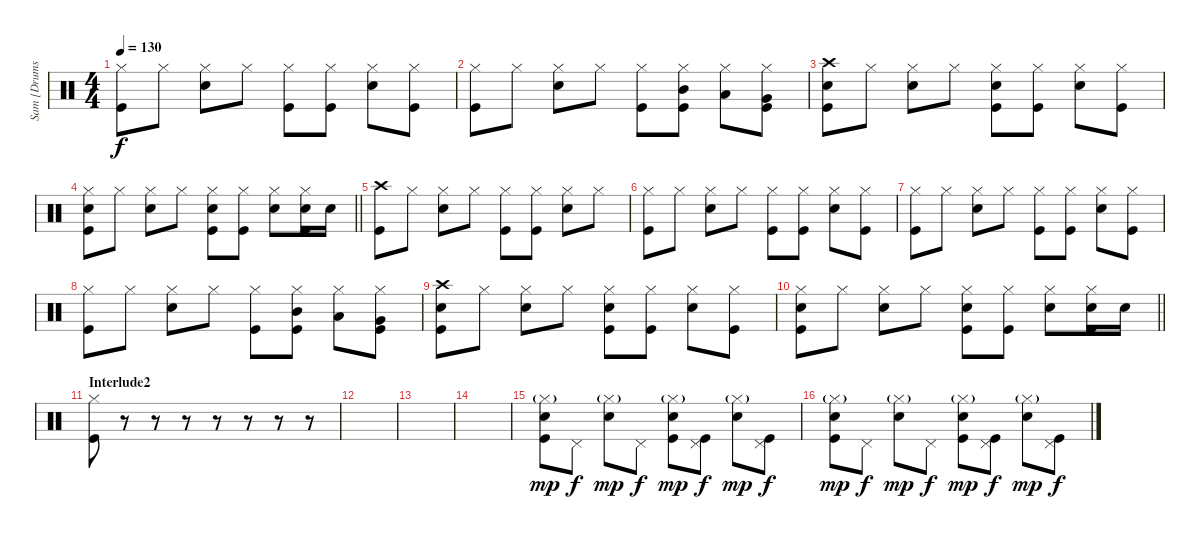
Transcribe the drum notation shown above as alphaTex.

\track ("Sam [Drums]" "Sam [Drums") {instrument percussion}
\staff {score}
\articulation defaults
\ts (4 4)
\tempo 130
\clef neutral
\ks c
("Hi-Hat (closed)" "Kick (hit)").8{dy f} "Hi-Hat (closed)".8 ("Hi-Hat (closed)" "Snare (hit) 2").8 "Hi-Hat (closed)".8 ("Hi-Hat (closed)" "Kick (hit)").8 ("Hi-Hat (closed)" "Kick (hit)").8 ("Hi-Hat (closed)" "Snare (hit) 2").8 ("Hi-Hat (closed)" "Kick (hit)").8 |
("Hi-Hat (closed)" "Kick (hit)").8 "Hi-Hat (closed)".8 ("Hi-Hat (closed)" "Snare (hit) 2").8 "Hi-Hat (closed)".8 ("Hi-Hat (closed)" "Kick (hit)").8 ("Hi-Hat (closed)" "Mid Tom (hit)" "Kick (hit)").8 ("Hi-Hat (closed)" "Low Tom (hit)").8 ("Hi-Hat (closed)" "Very Low Tom (hit)" "Kick (hit)").8 |
("Crash high (hit)" "Snare (hit) 2" "Kick (hit)").8 "Hi-Hat (closed)".8 ("Hi-Hat (closed)" "Snare (hit) 2").8 "Hi-Hat (closed)".8 ("Hi-Hat (closed)" "Snare (hit) 2" "Kick (hit)").8 ("Hi-Hat (closed)" "Kick (hit)").8 ("Hi-Hat (closed)" "Snare (hit) 2").8 ("Hi-Hat (closed)" "Kick (hit)").8 |
\barLineRight lightlight
("Hi-Hat (closed)" "Snare (hit) 2" "Kick (hit)").8 "Hi-Hat (closed)".8 ("Hi-Hat (closed)" "Snare (hit) 2").8 "Hi-Hat (closed)".8 ("Hi-Hat (closed)" "Snare (hit) 2" "Kick (hit)").8 ("Hi-Hat (closed)" "Kick (hit)").8 ("Hi-Hat (closed)" "Snare (hit) 2").8 ("Hi-Hat (closed)" "Snare (hit) 2" "Kick (hit)").16 "Snare (hit) 2".16 |
("Crash high (hit)" "Kick (hit)").8 "Hi-Hat (closed)".8 ("Hi-Hat (closed)" "Snare (hit) 2").8 "Hi-Hat (closed)".8 ("Hi-Hat (closed)" "Kick (hit)").8 ("Hi-Hat (closed)" "Kick (hit)").8 ("Hi-Hat (closed)" "Snare (hit) 2").8 "Hi-Hat (closed)".8 |
("Hi-Hat (closed)" "Kick (hit)").8 "Hi-Hat (closed)".8 ("Hi-Hat (closed)" "Snare (hit) 2").8 "Hi-Hat (closed)".8 ("Hi-Hat (closed)" "Kick (hit)").8 ("Hi-Hat (closed)" "Kick (hit)").8 ("Hi-Hat (closed)" "Snare (hit) 2").8 ("Hi-Hat (closed)" "Kick (hit)").8 |
("Hi-Hat (closed)" "Kick (hit)").8 "Hi-Hat (closed)".8 ("Hi-Hat (closed)" "Snare (hit) 2").8 "Hi-Hat (closed)".8 ("Hi-Hat (closed)" "Kick (hit)").8 ("Hi-Hat (closed)" "Kick (hit)").8 ("Hi-Hat (closed)" "Snare (hit) 2").8 ("Hi-Hat (closed)" "Kick (hit)").8 |
("Hi-Hat (closed)" "Kick (hit)").8 "Hi-Hat (closed)".8 ("Hi-Hat (closed)" "Snare (hit) 2").8 "Hi-Hat (closed)".8 ("Hi-Hat (closed)" "Kick (hit)").8 ("Hi-Hat (closed)" "Mid Tom (hit)" "Kick (hit)").8 ("Hi-Hat (closed)" "Low Tom (hit)").8 ("Hi-Hat (closed)" "Very Low Tom (hit)" "Kick (hit)").8 |
("Crash high (hit)" "Snare (hit) 2" "Kick (hit)").8 "Hi-Hat (closed)".8 ("Hi-Hat (closed)" "Snare (hit) 2").8 "Hi-Hat (closed)".8 ("Hi-Hat (closed)" "Snare (hit) 2" "Kick (hit)").8 ("Hi-Hat (closed)" "Kick (hit)").8 ("Hi-Hat (closed)" "Snare (hit) 2").8 ("Hi-Hat (closed)" "Kick (hit)").8 |
\barLineRight lightlight
("Hi-Hat (closed)" "Snare (hit) 2" "Kick (hit)").8 "Hi-Hat (closed)".8 ("Hi-Hat (closed)" "Snare (hit) 2").8 "Hi-Hat (closed)".8 ("Hi-Hat (closed)" "Snare (hit) 2" "Kick (hit)").8 ("Hi-Hat (closed)" "Kick (hit)").8 ("Hi-Hat (closed)" "Snare (hit) 2").8 ("Hi-Hat (closed)" "Snare (hit) 2" "Kick (hit)").16 "Snare (hit) 2".16 |
\section ("" "Interlude2")
("Hi-Hat (closed)" "Kick (hit)").8 r.8 r.8 r.8 r.8 r.8 r.8 r.8 |
|
|
|
("Hi-Hat (closed)"{g} "Snare (hit) 2" "Kick (hit)").8{dy mp} "Pedal Hi-Hat (hit)".8{dy f} ("Hi-Hat (closed)"{g} "Snare (hit) 2").8{dy mp} "Pedal Hi-Hat (hit)".8{dy f} ("Hi-Hat (closed)"{g} "Snare (hit) 2" "Kick (hit)").8{dy mp} ("Pedal Hi-Hat (hit)" "Kick (hit)").8{dy f} ("Hi-Hat (closed)"{g} "Snare (hit) 2").8{dy mp} ("Pedal Hi-Hat (hit)" "Kick (hit)").8{dy f} |
("Hi-Hat (closed)"{g} "Snare (hit) 2" "Kick (hit)").8{dy mp} "Pedal Hi-Hat (hit)".8{dy f} ("Hi-Hat (closed)"{g} "Snare (hit) 2").8{dy mp} "Pedal Hi-Hat (hit)".8{dy f} ("Hi-Hat (closed)"{g} "Snare (hit) 2" "Kick (hit)").8{dy mp} ("Pedal Hi-Hat (hit)" "Kick (hit)").8{dy f} ("Hi-Hat (closed)"{g} "Snare (hit) 2").8{dy mp} ("Pedal Hi-Hat (hit)" "Kick (hit)").8{dy f}
